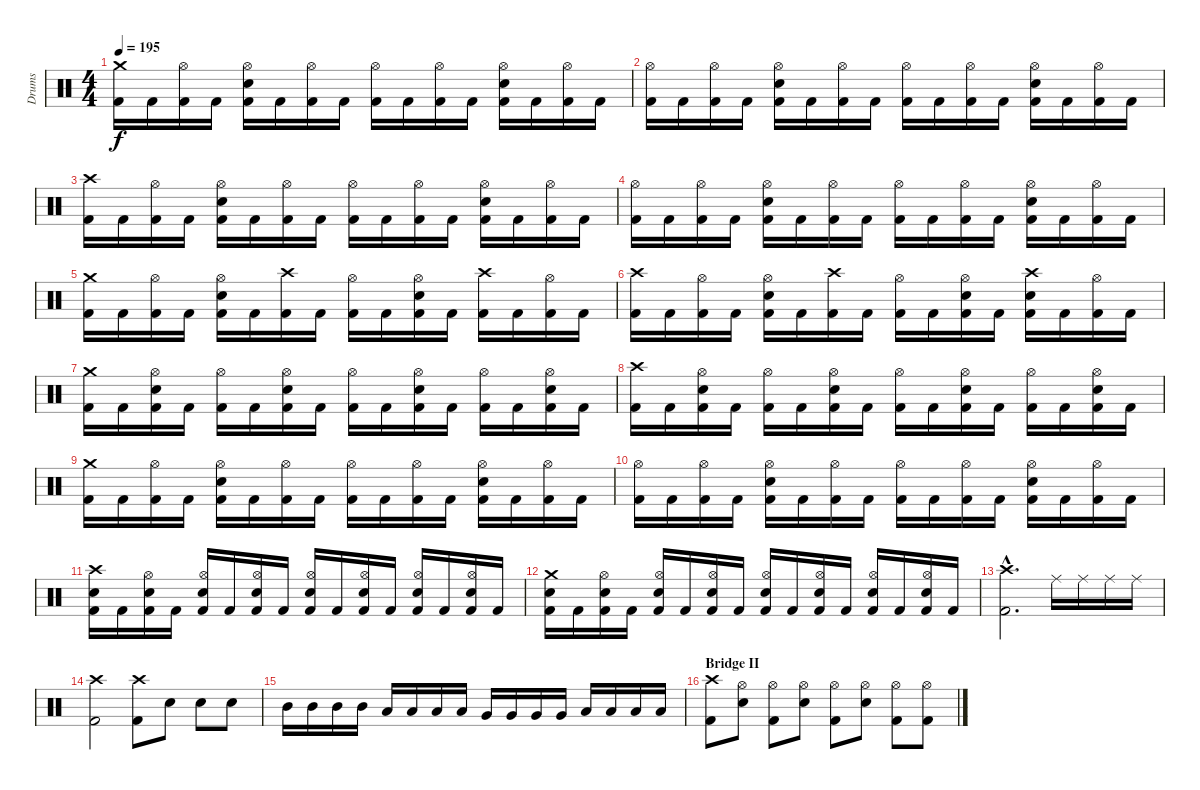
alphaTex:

\track ("Drums" "Drums") {instrument percussion}
\staff {score}
\articulation defaults
\ts (4 4)
\tempo 195
\clef neutral
\ks c
("Crash medium (hit)" "Kick (hit) 2").16{dy f} "Kick (hit) 2".16 ("Hi-Hat (open)" "Kick (hit) 2").16 "Kick (hit) 2".16 ("Hi-Hat (open)" "Snare (hit) 2" "Kick (hit) 2").16 "Kick (hit) 2".16 ("Hi-Hat (open)" "Kick (hit) 2").16 "Kick (hit) 2".16 ("Hi-Hat (open)" "Kick (hit) 2").16 "Kick (hit) 2".16 ("Hi-Hat (open)" "Kick (hit) 2").16 "Kick (hit) 2".16 ("Hi-Hat (open)" "Snare (hit) 2" "Kick (hit) 2").16 "Kick (hit) 2".16 ("Hi-Hat (open)" "Kick (hit) 2").16 "Kick (hit) 2".16 |
("Hi-Hat (open)" "Kick (hit) 2").16 "Kick (hit) 2".16 ("Hi-Hat (open)" "Kick (hit) 2").16 "Kick (hit) 2".16 ("Hi-Hat (open)" "Snare (hit) 2" "Kick (hit) 2").16 "Kick (hit) 2".16 ("Hi-Hat (open)" "Kick (hit) 2").16 "Kick (hit) 2".16 ("Hi-Hat (open)" "Kick (hit) 2").16 "Kick (hit) 2".16 ("Hi-Hat (open)" "Kick (hit) 2").16 "Kick (hit) 2".16 ("Hi-Hat (open)" "Snare (hit) 2" "Kick (hit) 2").16 "Kick (hit) 2".16 ("Hi-Hat (open)" "Kick (hit) 2").16 "Kick (hit) 2".16 |
("Crash high (hit)" "Kick (hit) 2").16 "Kick (hit) 2".16 ("Hi-Hat (open)" "Kick (hit) 2").16 "Kick (hit) 2".16 ("Hi-Hat (open)" "Snare (hit) 2" "Kick (hit) 2").16 "Kick (hit) 2".16 ("Hi-Hat (open)" "Kick (hit) 2").16 "Kick (hit) 2".16 ("Hi-Hat (open)" "Kick (hit) 2").16 "Kick (hit) 2".16 ("Hi-Hat (open)" "Kick (hit) 2").16 "Kick (hit) 2".16 ("Hi-Hat (open)" "Snare (hit) 2" "Kick (hit) 2").16 "Kick (hit) 2".16 ("Hi-Hat (open)" "Kick (hit) 2").16 "Kick (hit) 2".16 |
("Hi-Hat (open)" "Kick (hit) 2").16 "Kick (hit) 2".16 ("Hi-Hat (open)" "Kick (hit) 2").16 "Kick (hit) 2".16 ("Hi-Hat (open)" "Snare (hit) 2" "Kick (hit) 2").16 "Kick (hit) 2".16 ("Hi-Hat (open)" "Kick (hit) 2").16 "Kick (hit) 2".16 ("Hi-Hat (open)" "Kick (hit) 2").16 "Kick (hit) 2".16 ("Hi-Hat (open)" "Kick (hit) 2").16 "Kick (hit) 2".16 ("Hi-Hat (open)" "Snare (hit) 2" "Kick (hit) 2").16 "Kick (hit) 2".16 ("Hi-Hat (open)" "Kick (hit) 2").16 "Kick (hit) 2".16 |
("Crash medium (hit)" "Kick (hit) 2").16 "Kick (hit) 2".16 ("Hi-Hat (open)" "Kick (hit) 2").16 "Kick (hit) 2".16 ("Hi-Hat (open)" "Snare (hit) 2" "Kick (hit) 2").16 "Kick (hit) 2".16 ("Crash high (hit)" "Kick (hit) 2").16 "Kick (hit) 2".16 ("Hi-Hat (open)" "Kick (hit) 2").16 "Kick (hit) 2".16 ("Hi-Hat (open)" "Snare (hit) 2" "Kick (hit) 2").16 "Kick (hit) 2".16 ("Crash high (hit)" "Kick (hit) 2").16 "Kick (hit) 2".16 ("Hi-Hat (open)" "Kick (hit) 2").16 "Kick (hit) 2".16 |
("Crash high (hit)" "Kick (hit) 2").16 "Kick (hit) 2".16 ("Hi-Hat (open)" "Kick (hit) 2").16 "Kick (hit) 2".16 ("Hi-Hat (open)" "Snare (hit) 2" "Kick (hit) 2").16 "Kick (hit) 2".16 ("Crash high (hit)" "Kick (hit) 2").16 "Kick (hit) 2".16 ("Hi-Hat (open)" "Kick (hit) 2").16 "Kick (hit) 2".16 ("Hi-Hat (open)" "Snare (hit) 2" "Kick (hit) 2").16 "Kick (hit) 2".16 ("Crash high (hit)" "Snare (hit) 2" "Kick (hit) 2").16 "Kick (hit) 2".16 ("Hi-Hat (open)" "Kick (hit) 2").16 "Kick (hit) 2".16 |
("Crash medium (hit)" "Kick (hit) 2").16 "Kick (hit) 2".16 ("Hi-Hat (open)" "Snare (hit) 2" "Kick (hit) 2").16 "Kick (hit) 2".16 ("Hi-Hat (open)" "Kick (hit) 2").16 "Kick (hit) 2".16 ("Hi-Hat (open)" "Snare (hit) 2" "Kick (hit) 2").16 "Kick (hit) 2".16 ("Hi-Hat (open)" "Kick (hit) 2").16 "Kick (hit) 2".16 ("Hi-Hat (open)" "Snare (hit) 2" "Kick (hit) 2").16 "Kick (hit) 2".16 ("Hi-Hat (open)" "Kick (hit) 2").16 "Kick (hit) 2".16 ("Hi-Hat (open)" "Snare (hit) 2" "Kick (hit) 2").16 "Kick (hit) 2".16 |
("Crash high (hit)" "Kick (hit) 2").16 "Kick (hit) 2".16 ("Hi-Hat (open)" "Snare (hit) 2" "Kick (hit) 2").16 "Kick (hit) 2".16 ("Hi-Hat (open)" "Kick (hit) 2").16 "Kick (hit) 2".16 ("Hi-Hat (open)" "Snare (hit) 2" "Kick (hit) 2").16 "Kick (hit) 2".16 ("Hi-Hat (open)" "Kick (hit) 2").16 "Kick (hit) 2".16 ("Hi-Hat (open)" "Snare (hit) 2" "Kick (hit) 2").16 "Kick (hit) 2".16 ("Hi-Hat (open)" "Kick (hit) 2").16 "Kick (hit) 2".16 ("Hi-Hat (open)" "Snare (hit) 2" "Kick (hit) 2").16 "Kick (hit) 2".16 |
("Crash medium (hit)" "Kick (hit) 2").16 "Kick (hit) 2".16 ("Hi-Hat (open)" "Kick (hit) 2").16 "Kick (hit) 2".16 ("Hi-Hat (open)" "Snare (hit) 2" "Kick (hit) 2").16 "Kick (hit) 2".16 ("Hi-Hat (open)" "Kick (hit) 2").16 "Kick (hit) 2".16 ("Hi-Hat (open)" "Kick (hit) 2").16 "Kick (hit) 2".16 ("Hi-Hat (open)" "Kick (hit) 2").16 "Kick (hit) 2".16 ("Hi-Hat (open)" "Snare (hit) 2" "Kick (hit) 2").16 "Kick (hit) 2".16 ("Hi-Hat (open)" "Kick (hit) 2").16 "Kick (hit) 2".16 |
("Hi-Hat (open)" "Kick (hit) 2").16 "Kick (hit) 2".16 ("Hi-Hat (open)" "Kick (hit) 2").16 "Kick (hit) 2".16 ("Hi-Hat (open)" "Snare (hit) 2" "Kick (hit) 2").16 "Kick (hit) 2".16 ("Hi-Hat (open)" "Kick (hit) 2").16 "Kick (hit) 2".16 ("Hi-Hat (open)" "Kick (hit) 2").16 "Kick (hit) 2".16 ("Hi-Hat (open)" "Kick (hit) 2").16 "Kick (hit) 2".16 ("Hi-Hat (open)" "Snare (hit) 2" "Kick (hit) 2").16 "Kick (hit) 2".16 ("Hi-Hat (open)" "Kick (hit) 2").16 "Kick (hit) 2".16 |
("Crash high (hit)" "Snare (hit) 2" "Kick (hit) 2").16 "Kick (hit) 2".16 ("Hi-Hat (open)" "Snare (hit) 2" "Kick (hit) 2").16 "Kick (hit) 2".16 ("Hi-Hat (open)" "Snare (hit) 2" "Kick (hit) 2").16 "Kick (hit) 2".16 ("Hi-Hat (open)" "Snare (hit) 2" "Kick (hit) 2").16 "Kick (hit) 2".16 ("Hi-Hat (open)" "Snare (hit) 2" "Kick (hit) 2").16 "Kick (hit) 2".16 ("Hi-Hat (open)" "Snare (hit) 2" "Kick (hit) 2").16 "Kick (hit) 2".16 ("Hi-Hat (open)" "Snare (hit) 2" "Kick (hit) 2").16 "Kick (hit) 2".16 ("Hi-Hat (open)" "Snare (hit) 2" "Kick (hit) 2").16 "Kick (hit) 2".16 |
("Crash medium (hit)" "Snare (hit) 2" "Kick (hit) 2").16 "Kick (hit) 2".16 ("Hi-Hat (open)" "Snare (hit) 2" "Kick (hit) 2").16 "Kick (hit) 2".16 ("Hi-Hat (open)" "Snare (hit) 2" "Kick (hit) 2").16 "Kick (hit) 2".16 ("Hi-Hat (open)" "Snare (hit) 2" "Kick (hit) 2").16 "Kick (hit) 2".16 ("Hi-Hat (open)" "Snare (hit) 2" "Kick (hit) 2").16 "Kick (hit) 2".16 ("Hi-Hat (open)" "Snare (hit) 2" "Kick (hit) 2").16 "Kick (hit) 2".16 ("Hi-Hat (open)" "Snare (hit) 2" "Kick (hit) 2").16 "Kick (hit) 2".16 ("Hi-Hat (open)" "Snare (hit) 2" "Kick (hit) 2").16 "Kick (hit) 2".16 |
("Crash high (hit)"{hac} "Kick (hit) 2"{hac}).2{d} "Ride (middle)".16 "Ride (middle)".16 "Ride (middle)".16 "Ride (middle)".16 |
("Crash high (hit)" "Kick (hit) 2").2 ("Crash high (hit)" "Kick (hit) 2").8 "Snare (hit) 2".8 "Snare (hit) 2".8 "Snare (hit) 2".8 |
"Mid Tom (hit)".16 "Mid Tom (hit)".16 "Mid Tom (hit)".16 "Mid Tom (hit)".16 "Low Tom (hit)".16 "Low Tom (hit)".16 "Low Tom (hit)".16 "Low Tom (hit)".16 "Very Low Tom (hit)".16 "Very Low Tom (hit)".16 "Very Low Tom (hit)".16 "Very Low Tom (hit)".16 "Low Floor Tom (hit)".16 "Low Floor Tom (hit)".16 "Low Floor Tom (hit)".16 "Low Floor Tom (hit)".16 |
\section ("" "Bridge II")
("Crash high (hit)" "Kick (hit) 2").8 ("Hi-Hat (open)" "Snare (hit) 2").8 ("Hi-Hat (open)" "Kick (hit) 2").8 ("Hi-Hat (open)" "Snare (hit) 2").8 ("Hi-Hat (open)" "Kick (hit) 2").8 ("Hi-Hat (open)" "Snare (hit) 2").8 ("Hi-Hat (open)" "Kick (hit) 2").8 ("Hi-Hat (open)" "Kick (hit) 2").8
